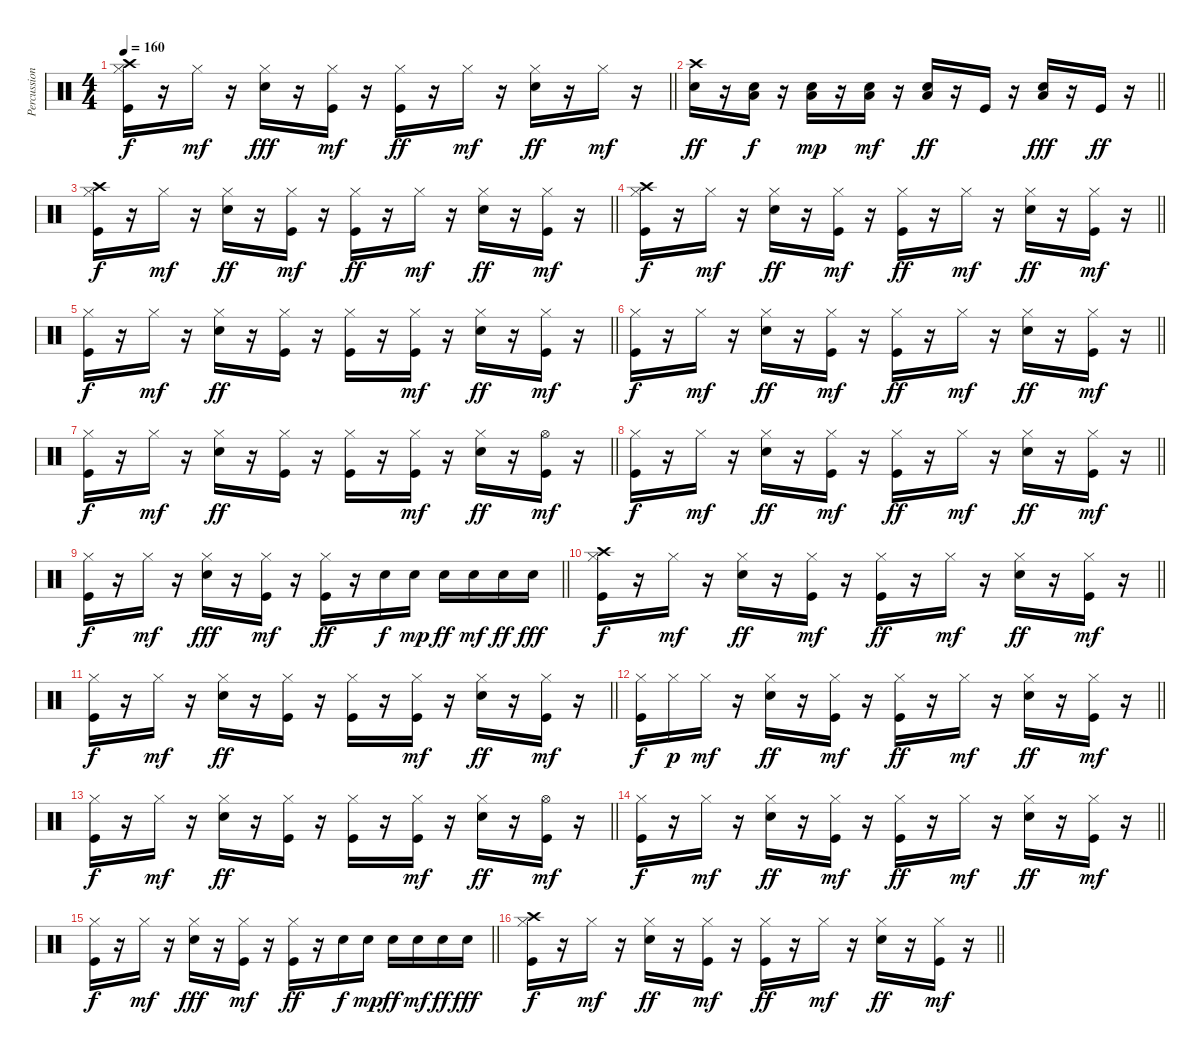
\track ("Percussions" "Percussion") {instrument percussion}
\staff {score}
\articulation defaults
\ts (4 4)
\tempo 160
\clef neutral
\barLineRight lightlight
\ks c
("Kick (hit)" "Hi-Hat (closed)" "Crash high (hit)").16{dy f} r.16 "Hi-Hat (closed)".16{dy mf} r.16 ("Snare (hit) 2" "Hi-Hat (closed)").16{dy fff} r.16 ("Kick (hit)" "Hi-Hat (closed)").16{dy mf} r.16 ("Kick (hit)" "Hi-Hat (closed)").16{dy ff} r.16 "Hi-Hat (closed)".16{dy mf} r.16 ("Snare (hit) 2" "Hi-Hat (closed)").16{dy ff} r.16 "Hi-Hat (closed)".16{dy mf} r.16 |
\barLineRight lightlight
("Snare (hit) 2" "Crash high (hit)").16{dy ff} r.16 ("Snare (hit) 2" "Low Floor Tom (hit)").16{dy f} r.16 ("Snare (hit) 2" "Low Floor Tom (hit)").16{dy mp} r.16 ("Snare (hit) 2" "Low Floor Tom (hit)").16{dy mf} r.16 ("Snare (hit) 2" "Low Floor Tom (hit)").16{dy ff} r.16 "Kick (hit)".16 r.16 ("Snare (hit) 2" "Low Floor Tom (hit)").16{dy fff} r.16 "Kick (hit)".16{dy ff} r.16 |
\barLineRight lightlight
("Kick (hit)" "Hi-Hat (closed)" "Crash high (hit)").16{dy f} r.16 "Hi-Hat (closed)".16{dy mf} r.16 ("Snare (hit) 2" "Hi-Hat (closed)").16{dy ff} r.16 ("Kick (hit)" "Hi-Hat (closed)").16{dy mf} r.16 ("Kick (hit)" "Hi-Hat (closed)").16{dy ff} r.16 "Hi-Hat (closed)".16{dy mf} r.16 ("Snare (hit) 2" "Hi-Hat (closed)").16{dy ff} r.16 ("Kick (hit)" "Hi-Hat (closed)").16{dy mf} r.16 |
\barLineRight lightlight
("Kick (hit)" "Hi-Hat (closed)" "Crash high (hit)").16{dy f} r.16 "Hi-Hat (closed)".16{dy mf} r.16 ("Snare (hit) 2" "Hi-Hat (closed)").16{dy ff} r.16 ("Kick (hit)" "Hi-Hat (closed)").16{dy mf} r.16 ("Kick (hit)" "Hi-Hat (closed)").16{dy ff} r.16 "Hi-Hat (closed)".16{dy mf} r.16 ("Snare (hit) 2" "Hi-Hat (closed)").16{dy ff} r.16 ("Kick (hit)" "Hi-Hat (closed)").16{dy mf} r.16 |
\barLineRight lightlight
("Kick (hit)" "Hi-Hat (closed)").16{dy f} r.16 "Hi-Hat (closed)".16{dy mf} r.16 ("Snare (hit) 2" "Hi-Hat (closed)").16{dy ff} r.16 ("Kick (hit)" "Hi-Hat (closed)").16 r.16 ("Kick (hit)" "Hi-Hat (closed)").16 r.16 ("Kick (hit)" "Hi-Hat (closed)").16{dy mf} r.16 ("Snare (hit) 2" "Hi-Hat (closed)").16{dy ff} r.16 ("Kick (hit)" "Hi-Hat (closed)").16{dy mf} r.16 |
\barLineRight lightlight
("Kick (hit)" "Hi-Hat (closed)").16{dy f} r.16 "Hi-Hat (closed)".16{dy mf} r.16 ("Snare (hit) 2" "Hi-Hat (closed)").16{dy ff} r.16 ("Kick (hit)" "Hi-Hat (closed)").16{dy mf} r.16 ("Kick (hit)" "Hi-Hat (closed)").16{dy ff} r.16 "Hi-Hat (closed)".16{dy mf} r.16 ("Snare (hit) 2" "Hi-Hat (closed)").16{dy ff} r.16 ("Kick (hit)" "Hi-Hat (closed)").16{dy mf} r.16 |
\barLineRight lightlight
("Kick (hit)" "Hi-Hat (closed)").16{dy f} r.16 "Hi-Hat (closed)".16{dy mf} r.16 ("Snare (hit) 2" "Hi-Hat (closed)").16{dy ff} r.16 ("Kick (hit)" "Hi-Hat (closed)").16 r.16 ("Kick (hit)" "Hi-Hat (closed)").16 r.16 ("Kick (hit)" "Hi-Hat (closed)").16{dy mf} r.16 ("Snare (hit) 2" "Hi-Hat (closed)").16{dy ff} r.16 ("Kick (hit)" "Hi-Hat (open)").16{dy mf} r.16 |
\barLineRight lightlight
("Kick (hit)" "Hi-Hat (closed)").16{dy f} r.16 "Hi-Hat (closed)".16{dy mf} r.16 ("Snare (hit) 2" "Hi-Hat (closed)").16{dy ff} r.16 ("Kick (hit)" "Hi-Hat (closed)").16{dy mf} r.16 ("Kick (hit)" "Hi-Hat (closed)").16{dy ff} r.16 "Hi-Hat (closed)".16{dy mf} r.16 ("Snare (hit) 2" "Hi-Hat (closed)").16{dy ff} r.16 ("Kick (hit)" "Hi-Hat (closed)").16{dy mf} r.16 |
\barLineRight lightlight
("Kick (hit)" "Hi-Hat (closed)").16{dy f} r.16 "Hi-Hat (closed)".16{dy mf} r.16 ("Snare (hit) 2" "Hi-Hat (closed)").16{dy fff} r.16 ("Kick (hit)" "Hi-Hat (closed)").16{dy mf} r.16 ("Kick (hit)" "Hi-Hat (closed)").16{dy ff} r.16 "Snare (hit) 2".16{dy f} "Snare (hit) 2".16{dy mp} "Snare (hit) 2".16{dy ff} "Snare (hit) 2".16{dy mf} "Snare (hit) 2".16{dy ff} "Snare (hit) 2".16{dy fff} |
\barLineRight lightlight
("Kick (hit)" "Hi-Hat (closed)" "Crash high (hit)").16{dy f} r.16 "Hi-Hat (closed)".16{dy mf} r.16 ("Snare (hit) 2" "Hi-Hat (closed)").16{dy ff} r.16 ("Kick (hit)" "Hi-Hat (closed)").16{dy mf} r.16 ("Kick (hit)" "Hi-Hat (closed)").16{dy ff} r.16 "Hi-Hat (closed)".16{dy mf} r.16 ("Snare (hit) 2" "Hi-Hat (closed)").16{dy ff} r.16 ("Kick (hit)" "Hi-Hat (closed)").16{dy mf} r.16 |
\barLineRight lightlight
("Kick (hit)" "Hi-Hat (closed)").16{dy f} r.16 "Hi-Hat (closed)".16{dy mf} r.16 ("Snare (hit) 2" "Hi-Hat (closed)").16{dy ff} r.16 ("Kick (hit)" "Hi-Hat (closed)").16 r.16 ("Kick (hit)" "Hi-Hat (closed)").16 r.16 ("Kick (hit)" "Hi-Hat (closed)").16{dy mf} r.16 ("Snare (hit) 2" "Hi-Hat (closed)").16{dy ff} r.16 ("Kick (hit)" "Hi-Hat (closed)").16{dy mf} r.16 |
\barLineRight lightlight
("Kick (hit)" "Hi-Hat (closed)").16{dy f} "Hi-Hat (closed)".16{dy p} "Hi-Hat (closed)".16{dy mf} r.16 ("Snare (hit) 2" "Hi-Hat (closed)").16{dy ff} r.16 ("Kick (hit)" "Hi-Hat (closed)").16{dy mf} r.16 ("Kick (hit)" "Hi-Hat (closed)").16{dy ff} r.16 "Hi-Hat (closed)".16{dy mf} r.16 ("Snare (hit) 2" "Hi-Hat (closed)").16{dy ff} r.16 ("Kick (hit)" "Hi-Hat (closed)").16{dy mf} r.16 |
\barLineRight lightlight
("Kick (hit)" "Hi-Hat (closed)").16{dy f} r.16 "Hi-Hat (closed)".16{dy mf} r.16 ("Snare (hit) 2" "Hi-Hat (closed)").16{dy ff} r.16 ("Kick (hit)" "Hi-Hat (closed)").16 r.16 ("Kick (hit)" "Hi-Hat (closed)").16 r.16 ("Kick (hit)" "Hi-Hat (closed)").16{dy mf} r.16 ("Snare (hit) 2" "Hi-Hat (closed)").16{dy ff} r.16 ("Kick (hit)" "Hi-Hat (open)").16{dy mf} r.16 |
\barLineRight lightlight
("Kick (hit)" "Hi-Hat (closed)").16{dy f} r.16 "Hi-Hat (closed)".16{dy mf} r.16 ("Snare (hit) 2" "Hi-Hat (closed)").16{dy ff} r.16 ("Kick (hit)" "Hi-Hat (closed)").16{dy mf} r.16 ("Kick (hit)" "Hi-Hat (closed)").16{dy ff} r.16 "Hi-Hat (closed)".16{dy mf} r.16 ("Snare (hit) 2" "Hi-Hat (closed)").16{dy ff} r.16 ("Kick (hit)" "Hi-Hat (closed)").16{dy mf} r.16 |
\barLineRight lightlight
("Kick (hit)" "Hi-Hat (closed)").16{dy f} r.16 "Hi-Hat (closed)".16{dy mf} r.16 ("Snare (hit) 2" "Hi-Hat (closed)").16{dy fff} r.16 ("Kick (hit)" "Hi-Hat (closed)").16{dy mf} r.16 ("Kick (hit)" "Hi-Hat (closed)").16{dy ff} r.16 "Snare (hit) 2".16{dy f} "Snare (hit) 2".16{dy mp} "Snare (hit) 2".16{dy ff} "Snare (hit) 2".16{dy mf} "Snare (hit) 2".16{dy ff} "Snare (hit) 2".16{dy fff} |
\barLineRight lightlight
("Kick (hit)" "Hi-Hat (closed)" "Crash high (hit)").16{dy f} r.16 "Hi-Hat (closed)".16{dy mf} r.16 ("Snare (hit) 2" "Hi-Hat (closed)").16{dy ff} r.16 ("Kick (hit)" "Hi-Hat (closed)").16{dy mf} r.16 ("Kick (hit)" "Hi-Hat (closed)").16{dy ff} r.16 "Hi-Hat (closed)".16{dy mf} r.16 ("Snare (hit) 2" "Hi-Hat (closed)").16{dy ff} r.16 ("Kick (hit)" "Hi-Hat (closed)").16{dy mf} r.16
